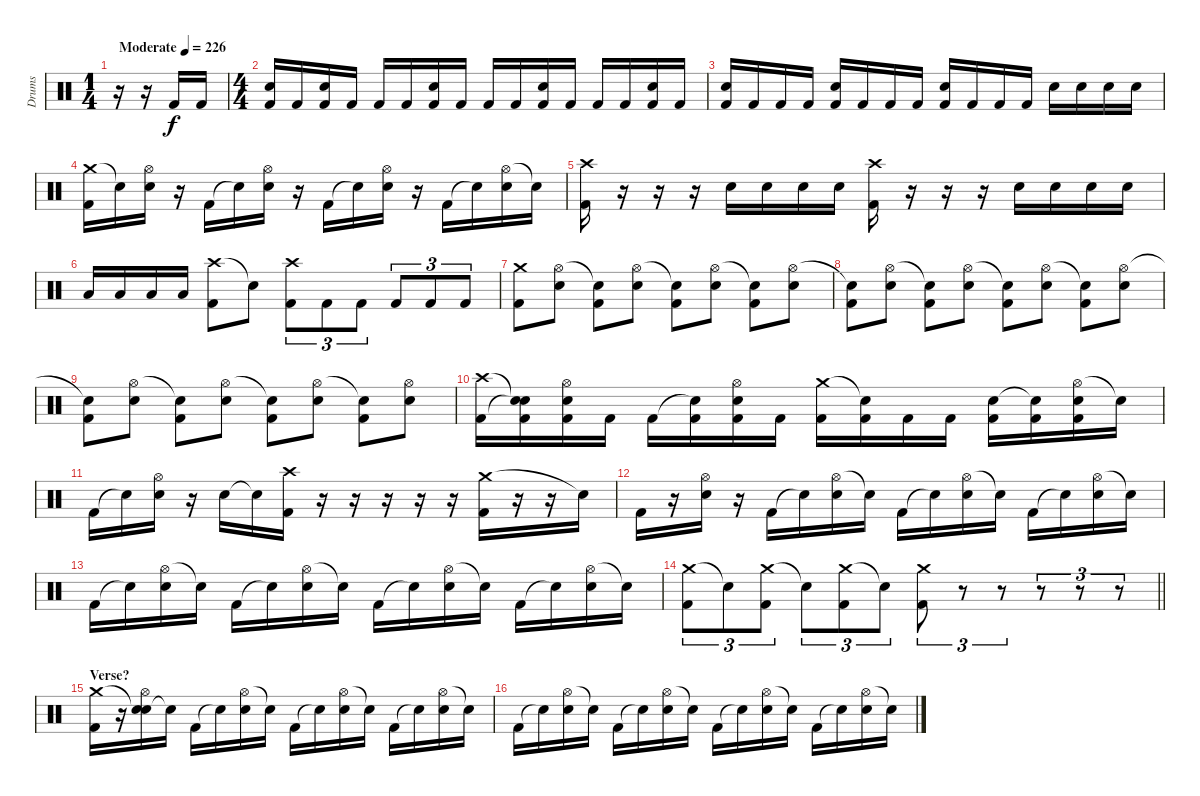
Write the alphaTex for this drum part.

\track ("Drums" "Drums") {instrument percussion}
\staff {score}
\articulation defaults
\ts (1 4)
\tempo (226 "Moderate")
\clef neutral
\ks c
r.16{dy f} r.16 "Kick (hit) 2".16 "Kick (hit) 2".16 |
\ts (4 4)
("Electric Snare (hit)" "Kick (hit) 2").16 "Kick (hit) 2".16 ("Electric Snare (hit)" "Kick (hit) 2").16 "Kick (hit) 2".16 "Kick (hit) 2".16 "Kick (hit) 2".16 ("Electric Snare (hit)" "Kick (hit) 2").16 "Kick (hit) 2".16 "Kick (hit) 2".16 "Kick (hit) 2".16 ("Electric Snare (hit)" "Kick (hit) 2").16 "Kick (hit) 2".16 "Kick (hit) 2".16 "Kick (hit) 2".16 ("Electric Snare (hit)" "Kick (hit) 2").16 "Kick (hit) 2".16 |
("Electric Snare (hit)" "Kick (hit) 2").16 "Kick (hit) 2".16 "Kick (hit) 2".16 "Kick (hit) 2".16 ("Electric Snare (hit)" "Kick (hit) 2").16 "Kick (hit) 2".16 "Kick (hit) 2".16 "Kick (hit) 2".16 ("Electric Snare (hit)" "Kick (hit) 2").16 "Kick (hit) 2".16 "Kick (hit) 2".16 "Kick (hit) 2".16 "Electric Snare (hit)".16 "Electric Snare (hit)".16 "Electric Snare (hit)".16 "Electric Snare (hit)".16 |
("Crash medium (hit)" "Kick (hit) 2").16 "Snare (hit)"{t}.16 ("Hi-Hat (open)" "Electric Snare (hit)").16 r.16 "Kick (hit) 2".16 "Snare (hit)"{t}.16 ("Hi-Hat (open)" "Electric Snare (hit)").16 r.16 "Kick (hit) 2".16 "Snare (hit)"{t}.16 ("Hi-Hat (open)" "Electric Snare (hit)").16 r.16 "Kick (hit) 2".16 "Snare (hit)"{t}.16 ("Hi-Hat (open)" "Electric Snare (hit)").16 "Snare (hit)"{t}.16 |
("Crash high (hit)" "Kick (hit) 2").16 r.16 r.16 r.16 "Electric Snare (hit)".16 "Electric Snare (hit)".16 "Electric Snare (hit)".16 "Electric Snare (hit)".16 ("Crash high (hit)" "Kick (hit) 2").16 r.16 r.16 r.16 "Electric Snare (hit)".16 "Electric Snare (hit)".16 "Electric Snare (hit)".16 "Electric Snare (hit)".16 |
"Low Tom (hit)".16 "Low Tom (hit)".16 "Low Tom (hit)".16 "Low Tom (hit)".16 ("Crash high (hit)" "Kick (hit) 2").8 "Snare (hit)"{t}.8 ("Crash high (hit)" "Kick (hit) 2").8{tu (3 2)} "Kick (hit) 2".8{tu (3 2)} "Kick (hit) 2".8{tu (3 2)} "Kick (hit) 2".8{tu (3 2)} "Kick (hit) 2".8{tu (3 2)} "Kick (hit) 2".8{tu (3 2)} |
("Crash medium (hit)" "Kick (hit) 2").8 ("Hi-Hat (open)" "Electric Snare (hit)").8 ("Snare (hit)"{t} "Kick (hit) 2").8 ("Hi-Hat (open)" "Electric Snare (hit)").8 ("Snare (hit)"{t} "Kick (hit) 2").8 ("Hi-Hat (open)" "Electric Snare (hit)").8 ("Snare (hit)"{t} "Kick (hit) 2").8 ("Hi-Hat (open)" "Electric Snare (hit)").8 |
("Snare (hit)"{t} "Kick (hit) 2").8 ("Hi-Hat (open)" "Electric Snare (hit)").8 ("Snare (hit)"{t} "Kick (hit) 2").8 ("Hi-Hat (open)" "Electric Snare (hit)").8 ("Snare (hit)"{t} "Kick (hit) 2").8 ("Hi-Hat (open)" "Electric Snare (hit)").8 ("Snare (hit)"{t} "Kick (hit) 2").8 ("Hi-Hat (open)" "Electric Snare (hit)").8 |
("Snare (hit)"{t} "Kick (hit) 2").8 ("Hi-Hat (open)" "Electric Snare (hit)").8 ("Snare (hit)"{t} "Kick (hit) 2").8 ("Hi-Hat (open)" "Electric Snare (hit)").8 ("Snare (hit)"{t} "Kick (hit) 2").8 ("Hi-Hat (open)" "Electric Snare (hit)").8 ("Snare (hit)"{t} "Kick (hit) 2").8 ("Hi-Hat (open)" "Electric Snare (hit)").8 |
("Crash high (hit)" "Kick (hit) 2").16 ("Snare (hit)"{t} "Snare (hit)"{t} "Kick (hit) 2").16 ("Hi-Hat (open)" "Electric Snare (hit)" "Kick (hit) 2").16 "Kick (hit) 2".16 "Kick (hit) 2".16 ("Snare (hit)"{t} "Kick (hit) 2").16 ("Hi-Hat (open)" "Electric Snare (hit)" "Kick (hit) 2").16 "Kick (hit) 2".16 ("Crash medium (hit)" "Kick (hit) 2").16 ("Snare (hit)"{t} "Kick (hit) 2").16 "Kick (hit) 2".16 "Kick (hit) 2".16 ("Electric Snare (hit)" "Kick (hit) 2").16 ("Snare (hit)"{t} "Kick (hit) 2").16 ("Hi-Hat (open)" "Electric Snare (hit)" "Kick (hit) 2").16 "Snare (hit)"{t}.16 |
"Kick (hit) 2".16 "Snare (hit)"{t}.16 ("Hi-Hat (open)" "Electric Snare (hit)").16 r.16 "Electric Snare (hit)".16 "Snare (hit)"{t}.16 ("Crash high (hit)" "Kick (hit) 2").16 r.16 r.16 r.16 r.16 r.16 ("Crash medium (hit)" "Kick (hit) 2").16 r.16 r.16 "Snare (hit)"{t}.16 |
"Kick (hit) 2".16 r.16 ("Hi-Hat (open)" "Electric Snare (hit)").16 r.16 "Kick (hit) 2".16 "Snare (hit)"{t}.16 ("Hi-Hat (open)" "Electric Snare (hit)").16 "Snare (hit)"{t}.16 "Kick (hit) 2".16 "Snare (hit)"{t}.16 ("Hi-Hat (open)" "Electric Snare (hit)").16 "Snare (hit)"{t}.16 "Kick (hit) 2".16 "Snare (hit)"{t}.16 ("Hi-Hat (open)" "Electric Snare (hit)").16 "Snare (hit)"{t}.16 |
"Kick (hit) 2".16 "Snare (hit)"{t}.16 ("Hi-Hat (open)" "Electric Snare (hit)").16 "Snare (hit)"{t}.16 "Kick (hit) 2".16 "Snare (hit)"{t}.16 ("Hi-Hat (open)" "Electric Snare (hit)").16 "Snare (hit)"{t}.16 "Kick (hit) 2".16 "Snare (hit)"{t}.16 ("Hi-Hat (open)" "Electric Snare (hit)").16 "Snare (hit)"{t}.16 "Kick (hit) 2".16 "Snare (hit)"{t}.16 ("Hi-Hat (open)" "Electric Snare (hit)").16 "Snare (hit)"{t}.16 |
\barLineRight lightlight
("Crash medium (hit)" "Kick (hit) 2").8{tu (3 2)} "Snare (hit)"{t}.8{tu (3 2)} ("Crash medium (hit)" "Kick (hit) 2").8{tu (3 2)} "Snare (hit)"{t}.8{tu (3 2)} ("Crash medium (hit)" "Kick (hit) 2").8{tu (3 2)} "Snare (hit)"{t}.8{tu (3 2)} ("Crash medium (hit)" "Kick (hit) 2").8{tu (3 2)} r.8{tu (3 2)} r.8{tu (3 2)} r.8{tu (3 2)} r.8{tu (3 2)} r.8{tu (3 2)} |
\section ("" "Verse?")
("Crash medium (hit)" "Kick (hit) 2").16 r.16 ("Snare (hit)"{t} "Hi-Hat (open)" "Electric Snare (hit)").16 "Snare (hit)"{t}.16 "Kick (hit) 2".16 "Snare (hit)"{t}.16 ("Hi-Hat (open)" "Electric Snare (hit)").16 "Snare (hit)"{t}.16 "Kick (hit) 2".16 "Snare (hit)"{t}.16 ("Hi-Hat (open)" "Electric Snare (hit)").16 "Snare (hit)"{t}.16 "Kick (hit) 2".16 "Snare (hit)"{t}.16 ("Hi-Hat (open)" "Electric Snare (hit)").16 "Snare (hit)"{t}.16 |
"Kick (hit) 2".16 "Snare (hit)"{t}.16 ("Hi-Hat (open)" "Electric Snare (hit)").16 "Snare (hit)"{t}.16 "Kick (hit) 2".16 "Snare (hit)"{t}.16 ("Hi-Hat (open)" "Electric Snare (hit)").16 "Snare (hit)"{t}.16 "Kick (hit) 2".16 "Snare (hit)"{t}.16 ("Hi-Hat (open)" "Electric Snare (hit)").16 "Snare (hit)"{t}.16 "Kick (hit) 2".16 "Snare (hit)"{t}.16 ("Hi-Hat (open)" "Electric Snare (hit)").16 "Snare (hit)"{t}.16
